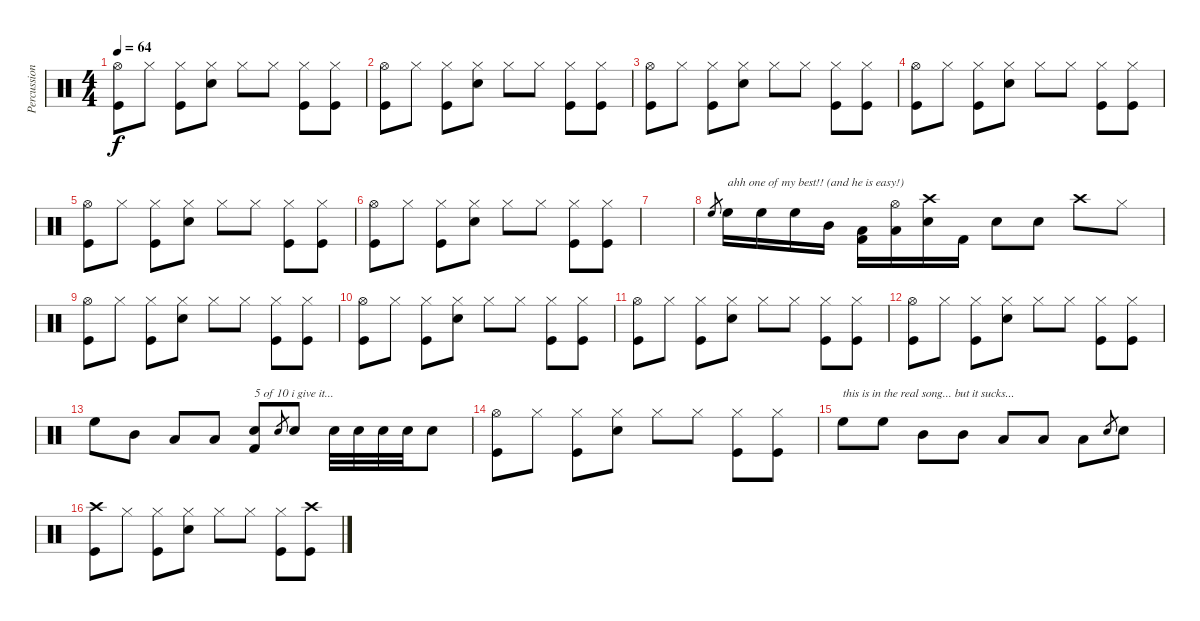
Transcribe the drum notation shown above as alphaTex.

\track ("Percussion" "Percussion") {instrument percussion}
\staff {score}
\articulation defaults
\ts (4 4)
\tempo 64
\clef neutral
\ks c
("Hi-Hat (open)" "Kick (hit)").8{dy f} "Hi-Hat (closed)".8 ("Hi-Hat (closed)" "Kick (hit)").8 ("Snare (hit) 2" "Hi-Hat (closed)").8 "Hi-Hat (closed)".8 "Hi-Hat (closed)".8 ("Hi-Hat (closed)" "Kick (hit)").8 ("Hi-Hat (closed)" "Kick (hit)").8 |
("Hi-Hat (open)" "Kick (hit)").8 "Hi-Hat (closed)".8 ("Hi-Hat (closed)" "Kick (hit)").8 ("Snare (hit) 2" "Hi-Hat (closed)").8 "Hi-Hat (closed)".8 "Hi-Hat (closed)".8 ("Hi-Hat (closed)" "Kick (hit)").8 ("Hi-Hat (closed)" "Kick (hit)").8 |
("Hi-Hat (open)" "Kick (hit)").8 "Hi-Hat (closed)".8 ("Hi-Hat (closed)" "Kick (hit)").8 ("Snare (hit) 2" "Hi-Hat (closed)").8 "Hi-Hat (closed)".8 "Hi-Hat (closed)".8 ("Hi-Hat (closed)" "Kick (hit)").8 ("Hi-Hat (closed)" "Kick (hit)").8 |
("Hi-Hat (open)" "Kick (hit)").8 "Hi-Hat (closed)".8 ("Hi-Hat (closed)" "Kick (hit)").8 ("Snare (hit) 2" "Hi-Hat (closed)").8 "Hi-Hat (closed)".8 "Hi-Hat (closed)".8 ("Hi-Hat (closed)" "Kick (hit)").8 ("Hi-Hat (closed)" "Kick (hit)").8 |
("Hi-Hat (open)" "Kick (hit)").8 "Hi-Hat (closed)".8 ("Hi-Hat (closed)" "Kick (hit)").8 ("Snare (hit) 2" "Hi-Hat (closed)").8 "Hi-Hat (closed)".8 "Hi-Hat (closed)".8 ("Hi-Hat (closed)" "Kick (hit)").8 ("Hi-Hat (closed)" "Kick (hit)").8 |
("Hi-Hat (open)" "Kick (hit)").8 "Hi-Hat (closed)".8 ("Hi-Hat (closed)" "Kick (hit)").8 ("Snare (hit) 2" "Hi-Hat (closed)").8 "Hi-Hat (closed)".8 "Hi-Hat (closed)".8 ("Hi-Hat (closed)" "Kick (hit)").8 ("Hi-Hat (closed)" "Kick (hit)").8 |
|
"High Floor Tom (hit)".8{gr} "High Floor Tom (hit)".16{txt "ahh one of my best!! (and he is easy!)"} "High Floor Tom (hit)".16 "High Floor Tom (hit)".16 "Mid Tom (hit)".16 ("Kick (hit) 2" "Low Tom (hit)").16 ("Low Floor Tom (hit)" "Hi-Hat (open)").16 ("Snare (hit) 2" "Crash high (hit)").16 "Kick (hit) 2".16 "Snare (hit) 2".8 "Snare (hit) 2".8 "Crash high (hit)".8 "Hi-Hat (closed)".8 |
("Hi-Hat (open)" "Kick (hit)").8 "Hi-Hat (closed)".8 ("Hi-Hat (closed)" "Kick (hit)").8 ("Snare (hit) 2" "Hi-Hat (closed)").8 "Hi-Hat (closed)".8 "Hi-Hat (closed)".8 ("Hi-Hat (closed)" "Kick (hit)").8 ("Hi-Hat (closed)" "Kick (hit)").8 |
("Hi-Hat (open)" "Kick (hit)").8 "Hi-Hat (closed)".8 ("Hi-Hat (closed)" "Kick (hit)").8 ("Snare (hit) 2" "Hi-Hat (closed)").8 "Hi-Hat (closed)".8 "Hi-Hat (closed)".8 ("Hi-Hat (closed)" "Kick (hit)").8 ("Hi-Hat (closed)" "Kick (hit)").8 |
("Hi-Hat (open)" "Kick (hit)").8 "Hi-Hat (closed)".8 ("Hi-Hat (closed)" "Kick (hit)").8 ("Snare (hit) 2" "Hi-Hat (closed)").8 "Hi-Hat (closed)".8 "Hi-Hat (closed)".8 ("Hi-Hat (closed)" "Kick (hit)").8 ("Hi-Hat (closed)" "Kick (hit)").8 |
("Hi-Hat (open)" "Kick (hit)").8 "Hi-Hat (closed)".8 ("Hi-Hat (closed)" "Kick (hit)").8 ("Snare (hit) 2" "Hi-Hat (closed)").8 "Hi-Hat (closed)".8 "Hi-Hat (closed)".8 ("Hi-Hat (closed)" "Kick (hit)").8 ("Hi-Hat (closed)" "Kick (hit)").8 |
"High Floor Tom (hit)".8 "Mid Tom (hit)".8 "Low Tom (hit)".8 "Low Floor Tom (hit)".8 ("Snare (hit) 2" "Kick (hit) 2").8{txt "5 of 10 i give it..."} "Snare (hit) 2".8{gr} "Snare (hit) 2".8 "Snare (hit) 2".32 "Snare (hit) 2".32 "Snare (hit) 2".32 "Snare (hit) 2".32 "Snare (hit) 2".8 |
("Hi-Hat (open)" "Kick (hit)").8 "Hi-Hat (closed)".8 ("Hi-Hat (closed)" "Kick (hit)").8 ("Snare (hit) 2" "Hi-Hat (closed)").8 "Hi-Hat (closed)".8 "Hi-Hat (closed)".8 ("Hi-Hat (closed)" "Kick (hit)").8 ("Hi-Hat (closed)" "Kick (hit)").8 |
"High Floor Tom (hit)".8{txt "this is in the real song... but it sucks..."} "High Floor Tom (hit)".8 "Mid Tom (hit)".8 "Mid Tom (hit)".8 "Low Tom (hit)".8 "Low Floor Tom (hit)".8 "Low Floor Tom (hit)".8 "Snare (hit) 2".8{gr} "Snare (hit) 2".8 |
("Crash high (hit)" "Kick (hit)").8 "Hi-Hat (closed)".8 ("Hi-Hat (closed)" "Kick (hit)").8 ("Snare (hit) 2" "Hi-Hat (closed)").8 "Hi-Hat (closed)".8 "Hi-Hat (closed)".8 ("Hi-Hat (closed)" "Kick (hit)").8 ("Crash high (hit)" "Kick (hit)").8
